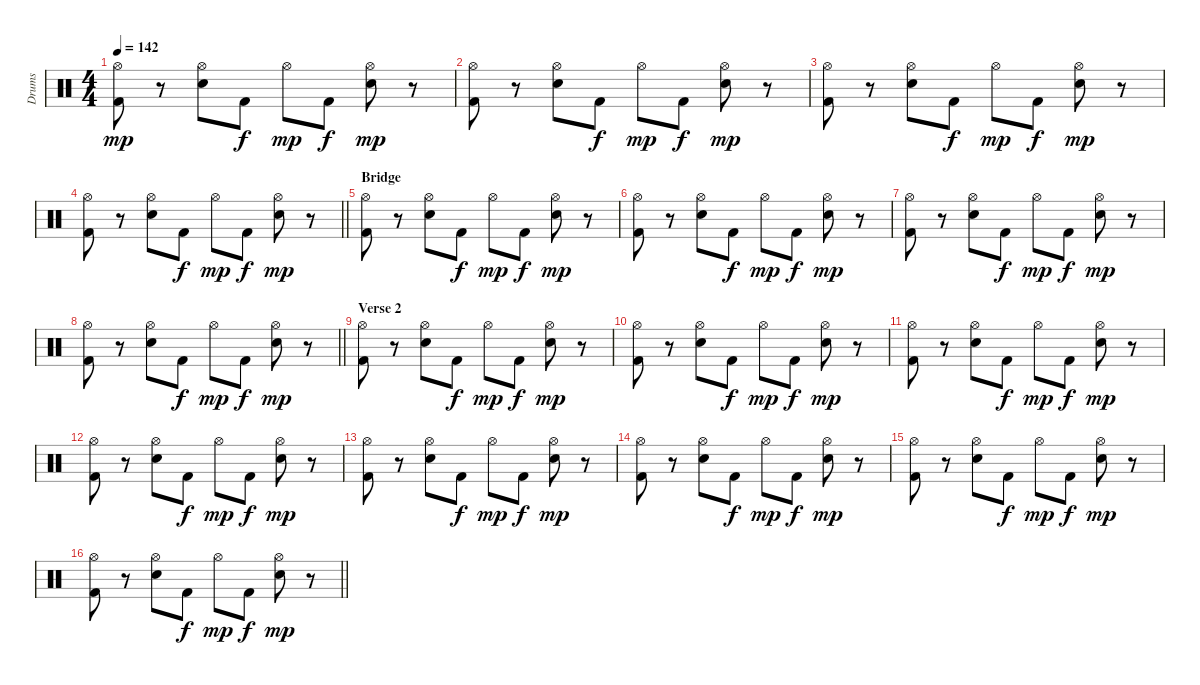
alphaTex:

\track ("Drums" "Drums") {instrument percussion}
\staff {score}
\articulation defaults
\ts (4 4)
\tempo 142
\clef neutral
\ks c
("Hi-Hat (open)" "Kick (hit) 2").8{dy mp} r.8 ("Hi-Hat (open)" "Snare (hit) 2").8 "Kick (hit) 2".8{dy f} "Hi-Hat (open)".8{dy mp} "Kick (hit) 2".8{dy f} ("Hi-Hat (open)" "Snare (hit) 2").8{dy mp} r.8 |
("Hi-Hat (open)" "Kick (hit) 2").8 r.8 ("Hi-Hat (open)" "Snare (hit) 2").8 "Kick (hit) 2".8{dy f} "Hi-Hat (open)".8{dy mp} "Kick (hit) 2".8{dy f} ("Hi-Hat (open)" "Snare (hit) 2").8{dy mp} r.8 |
("Hi-Hat (open)" "Kick (hit) 2").8 r.8 ("Hi-Hat (open)" "Snare (hit) 2").8 "Kick (hit) 2".8{dy f} "Hi-Hat (open)".8{dy mp} "Kick (hit) 2".8{dy f} ("Hi-Hat (open)" "Snare (hit) 2").8{dy mp} r.8 |
\barLineRight lightlight
("Hi-Hat (open)" "Kick (hit) 2").8 r.8 ("Hi-Hat (open)" "Snare (hit) 2").8 "Kick (hit) 2".8{dy f} "Hi-Hat (open)".8{dy mp} "Kick (hit) 2".8{dy f} ("Hi-Hat (open)" "Snare (hit) 2").8{dy mp} r.8 |
\section ("" "Bridge")
("Hi-Hat (open)" "Kick (hit) 2").8 r.8 ("Hi-Hat (open)" "Snare (hit) 2").8 "Kick (hit) 2".8{dy f} "Hi-Hat (open)".8{dy mp} "Kick (hit) 2".8{dy f} ("Hi-Hat (open)" "Snare (hit) 2").8{dy mp} r.8 |
("Hi-Hat (open)" "Kick (hit) 2").8 r.8 ("Hi-Hat (open)" "Snare (hit) 2").8 "Kick (hit) 2".8{dy f} "Hi-Hat (open)".8{dy mp} "Kick (hit) 2".8{dy f} ("Hi-Hat (open)" "Snare (hit) 2").8{dy mp} r.8 |
("Hi-Hat (open)" "Kick (hit) 2").8 r.8 ("Hi-Hat (open)" "Snare (hit) 2").8 "Kick (hit) 2".8{dy f} "Hi-Hat (open)".8{dy mp} "Kick (hit) 2".8{dy f} ("Hi-Hat (open)" "Snare (hit) 2").8{dy mp} r.8 |
\barLineRight lightlight
("Hi-Hat (open)" "Kick (hit) 2").8 r.8 ("Hi-Hat (open)" "Snare (hit) 2").8 "Kick (hit) 2".8{dy f} "Hi-Hat (open)".8{dy mp} "Kick (hit) 2".8{dy f} ("Hi-Hat (open)" "Snare (hit) 2").8{dy mp} r.8 |
\section ("" "Verse 2")
("Hi-Hat (open)" "Kick (hit) 2").8 r.8 ("Hi-Hat (open)" "Snare (hit) 2").8 "Kick (hit) 2".8{dy f} "Hi-Hat (open)".8{dy mp} "Kick (hit) 2".8{dy f} ("Hi-Hat (open)" "Snare (hit) 2").8{dy mp} r.8 |
("Hi-Hat (open)" "Kick (hit) 2").8 r.8 ("Hi-Hat (open)" "Snare (hit) 2").8 "Kick (hit) 2".8{dy f} "Hi-Hat (open)".8{dy mp} "Kick (hit) 2".8{dy f} ("Hi-Hat (open)" "Snare (hit) 2").8{dy mp} r.8 |
("Hi-Hat (open)" "Kick (hit) 2").8 r.8 ("Hi-Hat (open)" "Snare (hit) 2").8 "Kick (hit) 2".8{dy f} "Hi-Hat (open)".8{dy mp} "Kick (hit) 2".8{dy f} ("Hi-Hat (open)" "Snare (hit) 2").8{dy mp} r.8 |
("Hi-Hat (open)" "Kick (hit) 2").8 r.8 ("Hi-Hat (open)" "Snare (hit) 2").8 "Kick (hit) 2".8{dy f} "Hi-Hat (open)".8{dy mp} "Kick (hit) 2".8{dy f} ("Hi-Hat (open)" "Snare (hit) 2").8{dy mp} r.8 |
("Hi-Hat (open)" "Kick (hit) 2").8 r.8 ("Hi-Hat (open)" "Snare (hit) 2").8 "Kick (hit) 2".8{dy f} "Hi-Hat (open)".8{dy mp} "Kick (hit) 2".8{dy f} ("Hi-Hat (open)" "Snare (hit) 2").8{dy mp} r.8 |
("Hi-Hat (open)" "Kick (hit) 2").8 r.8 ("Hi-Hat (open)" "Snare (hit) 2").8 "Kick (hit) 2".8{dy f} "Hi-Hat (open)".8{dy mp} "Kick (hit) 2".8{dy f} ("Hi-Hat (open)" "Snare (hit) 2").8{dy mp} r.8 |
("Hi-Hat (open)" "Kick (hit) 2").8 r.8 ("Hi-Hat (open)" "Snare (hit) 2").8 "Kick (hit) 2".8{dy f} "Hi-Hat (open)".8{dy mp} "Kick (hit) 2".8{dy f} ("Hi-Hat (open)" "Snare (hit) 2").8{dy mp} r.8 |
\barLineRight lightlight
("Hi-Hat (open)" "Kick (hit) 2").8 r.8 ("Hi-Hat (open)" "Snare (hit) 2").8 "Kick (hit) 2".8{dy f} "Hi-Hat (open)".8{dy mp} "Kick (hit) 2".8{dy f} ("Hi-Hat (open)" "Snare (hit) 2").8{dy mp} r.8
